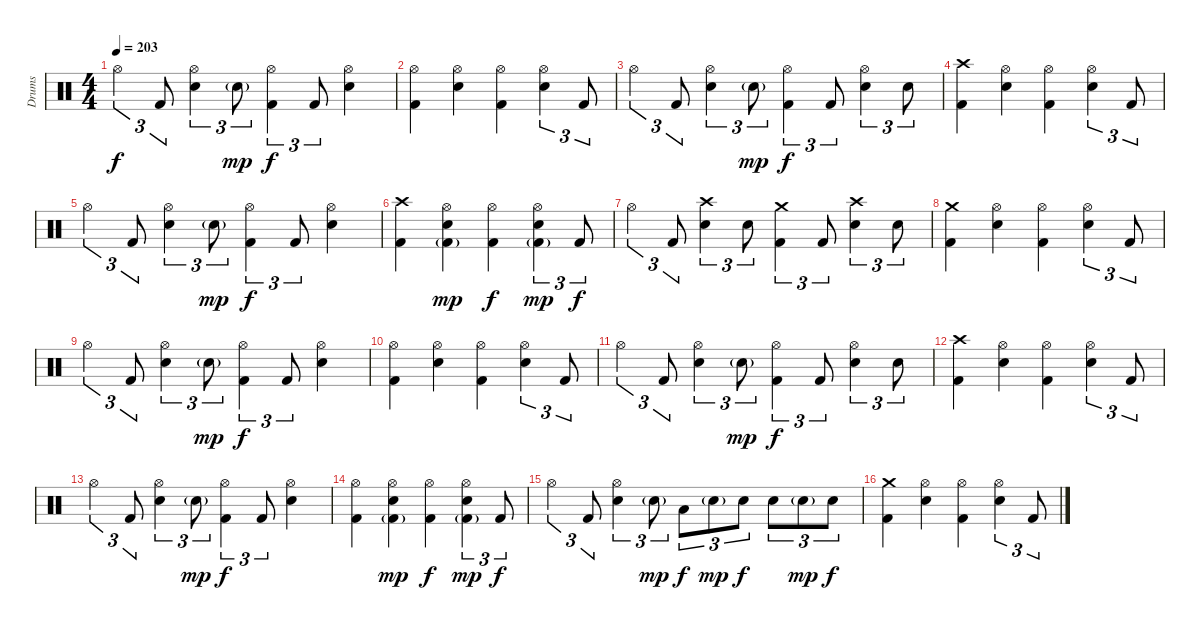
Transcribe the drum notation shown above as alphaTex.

\track ("Drums" "Drums") {instrument percussion}
\staff {score}
\articulation defaults
\ts (4 4)
\tempo 203
\clef neutral
\ks c "Hi-Hat (open)".4{tu (3 2) dy f} "Kick (hit) 2".8{tu (3 2)}
("Hi-Hat (open)" "Electric Snare (hit)").4{tu (3 2)} "Electric Snare (hit)"{g}.8{tu (3 2) dy mp} ("Hi-Hat (open)" "Kick (hit) 2").4{tu (3 2) dy f} "Kick (hit) 2".8{tu (3 2)} ("Hi-Hat (open)" "Electric Snare (hit)").4 |
("Hi-Hat (open)" "Kick (hit) 2").4 ("Hi-Hat (open)" "Electric Snare (hit)").4 ("Hi-Hat (open)" "Kick (hit) 2").4 ("Hi-Hat (open)" "Electric Snare (hit)").4{tu (3 2)} "Kick (hit) 2".8{tu (3 2)} |
"Hi-Hat (open)".4{tu (3 2)} "Kick (hit) 2".8{tu (3 2)} ("Hi-Hat (open)" "Electric Snare (hit)").4{tu (3 2)} "Electric Snare (hit)"{g}.8{tu (3 2) dy mp} ("Hi-Hat (open)" "Kick (hit) 2").4{tu (3 2) dy f} "Kick (hit) 2".8{tu (3 2)} ("Hi-Hat (open)" "Electric Snare (hit)").4{tu (3 2)} "Electric Snare (hit)".8{tu (3 2)} |
("Crash high (hit)" "Kick (hit) 2").4 ("Hi-Hat (open)" "Electric Snare (hit)").4 ("Hi-Hat (open)" "Kick (hit) 2").4 ("Hi-Hat (open)" "Electric Snare (hit)").4{tu (3 2)} "Kick (hit) 2".8{tu (3 2)} |
"Hi-Hat (open)".4{tu (3 2)} "Kick (hit) 2".8{tu (3 2)} ("Hi-Hat (open)" "Electric Snare (hit)").4{tu (3 2)} "Electric Snare (hit)"{g}.8{tu (3 2) dy mp} ("Hi-Hat (open)" "Kick (hit) 2").4{tu (3 2) dy f} "Kick (hit) 2".8{tu (3 2)} ("Hi-Hat (open)" "Electric Snare (hit)").4 |
("Crash high (hit)" "Kick (hit) 2").4 ("Hi-Hat (open)" "Electric Snare (hit)" "Kick (hit) 2"{g}).4{dy mp} ("Hi-Hat (open)" "Kick (hit) 2").4{dy f} ("Hi-Hat (open)" "Electric Snare (hit)" "Kick (hit) 2"{g}).4{tu (3 2) dy mp} "Kick (hit) 2".8{tu (3 2) dy f} |
"Hi-Hat (open)".4{tu (3 2)} "Kick (hit) 2".8{tu (3 2)} ("Crash high (hit)" "Electric Snare (hit)").4{tu (3 2)} "Electric Snare (hit)".8{tu (3 2)} ("Crash medium (hit)" "Kick (hit) 2").4{tu (3 2)} "Kick (hit) 2".8{tu (3 2)} ("Crash high (hit)" "Electric Snare (hit)").4{tu (3 2)} "Electric Snare (hit)".8{tu (3 2)} |
("Crash medium (hit)" "Kick (hit) 2").4 ("Hi-Hat (open)" "Electric Snare (hit)").4 ("Hi-Hat (open)" "Kick (hit) 2").4 ("Hi-Hat (open)" "Electric Snare (hit)").4{tu (3 2)} "Kick (hit) 2".8{tu (3 2)} |
"Hi-Hat (open)".4{tu (3 2)} "Kick (hit) 2".8{tu (3 2)} ("Hi-Hat (open)" "Electric Snare (hit)").4{tu (3 2)} "Electric Snare (hit)"{g}.8{tu (3 2) dy mp} ("Hi-Hat (open)" "Kick (hit) 2").4{tu (3 2) dy f} "Kick (hit) 2".8{tu (3 2)} ("Hi-Hat (open)" "Electric Snare (hit)").4 |
("Hi-Hat (open)" "Kick (hit) 2").4 ("Hi-Hat (open)" "Electric Snare (hit)").4 ("Hi-Hat (open)" "Kick (hit) 2").4 ("Hi-Hat (open)" "Electric Snare (hit)").4{tu (3 2)} "Kick (hit) 2".8{tu (3 2)} |
"Hi-Hat (open)".4{tu (3 2)} "Kick (hit) 2".8{tu (3 2)} ("Hi-Hat (open)" "Electric Snare (hit)").4{tu (3 2)} "Electric Snare (hit)"{g}.8{tu (3 2) dy mp} ("Hi-Hat (open)" "Kick (hit) 2").4{tu (3 2) dy f} "Kick (hit) 2".8{tu (3 2)} ("Hi-Hat (open)" "Electric Snare (hit)").4{tu (3 2)} "Electric Snare (hit)".8{tu (3 2)} |
("Crash high (hit)" "Kick (hit) 2").4 ("Hi-Hat (open)" "Electric Snare (hit)").4 ("Hi-Hat (open)" "Kick (hit) 2").4 ("Hi-Hat (open)" "Electric Snare (hit)").4{tu (3 2)} "Kick (hit) 2".8{tu (3 2)} |
"Hi-Hat (open)".4{tu (3 2)} "Kick (hit) 2".8{tu (3 2)} ("Hi-Hat (open)" "Electric Snare (hit)").4{tu (3 2)} "Electric Snare (hit)"{g}.8{tu (3 2) dy mp} ("Hi-Hat (open)" "Kick (hit) 2").4{tu (3 2) dy f} "Kick (hit) 2".8{tu (3 2)} ("Hi-Hat (open)" "Electric Snare (hit)").4 |
("Hi-Hat (open)" "Kick (hit) 2").4 ("Hi-Hat (open)" "Electric Snare (hit)" "Kick (hit) 2"{g}).4{dy mp} ("Hi-Hat (open)" "Kick (hit) 2").4{dy f} ("Hi-Hat (open)" "Electric Snare (hit)" "Kick (hit) 2"{g}).4{tu (3 2) dy mp} "Kick (hit) 2".8{tu (3 2) dy f} |
"Hi-Hat (open)".4{tu (3 2)} "Kick (hit) 2".8{tu (3 2)} ("Hi-Hat (open)" "Electric Snare (hit)").4{tu (3 2)} "Electric Snare (hit)"{g}.8{tu (3 2) dy mp} "Low Tom (hit)".8{tu (3 2) dy f} "Electric Snare (hit)"{g}.8{tu (3 2) dy mp} "Electric Snare (hit)".8{tu (3 2) dy f} "Electric Snare (hit)".8{tu (3 2)} "Electric Snare (hit)"{g}.8{tu (3 2) dy mp} "Electric Snare (hit)".8{tu (3 2) dy f} |
("Crash medium (hit)" "Kick (hit) 2").4 ("Hi-Hat (open)" "Electric Snare (hit)").4 ("Hi-Hat (open)" "Kick (hit) 2").4 ("Hi-Hat (open)" "Electric Snare (hit)").4{tu (3 2)} "Kick (hit) 2".8{tu (3 2)}
